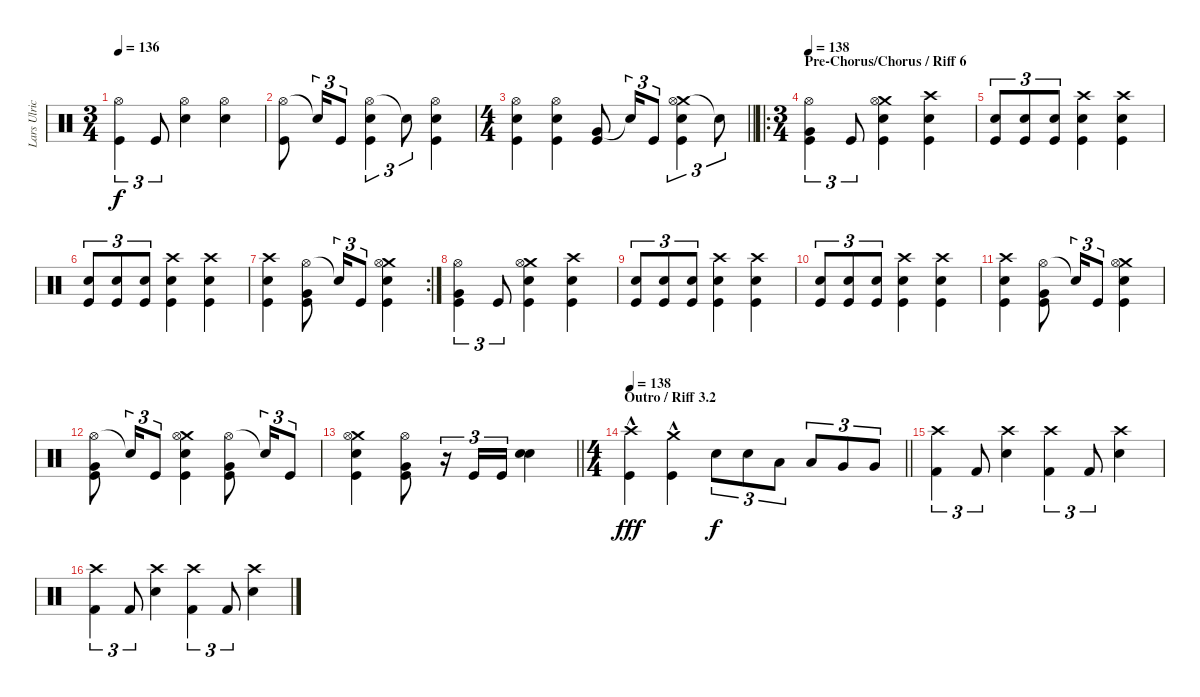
\track ("Lars Ulrich" "Lars Ulric") {instrument percussion}
\staff {score}
\articulation defaults
\ts (3 4)
\tempo 136
\clef neutral
\ks c
("Hi-Hat (open)" "Kick (hit)").4{tu (3 2) dy f} "Kick (hit)".8{tu (3 2)} ("Hi-Hat (open)" "Snare (hit) 2").4 ("Hi-Hat (open)" "Snare (hit) 2").4 |
("Hi-Hat (open)" "Kick (hit)").8 "Snare (hit)"{t}.16{tu (3 2)} "Kick (hit)".8{tu (3 2)} ("Hi-Hat (open)" "Snare (hit) 2" "Kick (hit)").4{tu (3 2)} "Snare (hit)"{t}.8{tu (3 2)} ("Hi-Hat (open)" "Snare (hit) 2" "Kick (hit)").4 |
\ts (4 4)
\barLineRight lightlight
("Hi-Hat (open)" "Snare (hit) 2" "Kick (hit)").4 ("Hi-Hat (open)" "Snare (hit) 2" "Kick (hit)").4 ("Very Low Tom (hit)" "Kick (hit)").8 "Snare (hit)"{t}.16{tu (3 2)} "Kick (hit)".8{tu (3 2)} ("Crash medium (hit)" "Hi-Hat (open)" "Snare (hit) 2" "Kick (hit)").4{tu (3 2)} "Snare (hit)"{t}.8{tu (3 2)} |
\ro
\ts (3 4)
\section ("" "Pre-Chorus/Chorus / Riff 6")
\tempo 138
("Hi-Hat (open)" "Very Low Tom (hit)" "Kick (hit)").4{tu (3 2)} "Kick (hit)".8{tu (3 2)} ("Crash medium (hit)" "Hi-Hat (open)" "Snare (hit) 2" "Kick (hit)").4 ("Crash high (hit)" "Snare (hit) 2" "Kick (hit)").4 |
("Snare (hit) 2" "Kick (hit)").8{tu (3 2)} ("Snare (hit) 2" "Kick (hit)").8{tu (3 2)} ("Snare (hit) 2" "Kick (hit)").8{tu (3 2)} ("Crash high (hit)" "Snare (hit) 2" "Kick (hit)").4 ("Crash high (hit)" "Snare (hit) 2" "Kick (hit)").4 |
("Snare (hit) 2" "Kick (hit)").8{tu (3 2)} ("Snare (hit) 2" "Kick (hit)").8{tu (3 2)} ("Snare (hit) 2" "Kick (hit)").8{tu (3 2)} ("Crash high (hit)" "Snare (hit) 2" "Kick (hit)").4 ("Crash high (hit)" "Snare (hit) 2" "Kick (hit)").4 |
\rc 2
("Crash high (hit)" "Snare (hit) 2" "Kick (hit)").4 ("Hi-Hat (open)" "Very Low Tom (hit)" "Kick (hit)").8 "Snare (hit)"{t}.16{tu (3 2)} "Kick (hit)".8{tu (3 2)} ("Crash medium (hit)" "Hi-Hat (open)" "Snare (hit) 2" "Kick (hit)").4 |
("Hi-Hat (open)" "Very Low Tom (hit)" "Kick (hit)").4{tu (3 2)} "Kick (hit)".8{tu (3 2)} ("Crash medium (hit)" "Hi-Hat (open)" "Snare (hit) 2" "Kick (hit)").4 ("Crash high (hit)" "Snare (hit) 2" "Kick (hit)").4 |
("Snare (hit) 2" "Kick (hit)").8{tu (3 2)} ("Snare (hit) 2" "Kick (hit)").8{tu (3 2)} ("Snare (hit) 2" "Kick (hit)").8{tu (3 2)} ("Crash high (hit)" "Snare (hit) 2" "Kick (hit)").4 ("Crash high (hit)" "Snare (hit) 2" "Kick (hit)").4 |
("Snare (hit) 2" "Kick (hit)").8{tu (3 2)} ("Snare (hit) 2" "Kick (hit)").8{tu (3 2)} ("Snare (hit) 2" "Kick (hit)").8{tu (3 2)} ("Crash high (hit)" "Snare (hit) 2" "Kick (hit)").4 ("Crash high (hit)" "Snare (hit) 2" "Kick (hit)").4 |
("Crash high (hit)" "Snare (hit) 2" "Kick (hit)").4 ("Hi-Hat (open)" "Very Low Tom (hit)" "Kick (hit)").8 "Snare (hit)"{t}.16{tu (3 2)} "Kick (hit)".8{tu (3 2)} ("Crash medium (hit)" "Hi-Hat (open)" "Snare (hit) 2" "Kick (hit)").4 |
("Hi-Hat (open)" "Very Low Tom (hit)" "Kick (hit)").8 "Snare (hit)"{t}.16{tu (3 2)} "Kick (hit)".8{tu (3 2)} ("Crash medium (hit)" "Hi-Hat (open)" "Snare (hit) 2" "Kick (hit)").4 ("Hi-Hat (open)" "Very Low Tom (hit)" "Kick (hit)").8 "Snare (hit)"{t}.16{tu (3 2)} "Kick (hit)".8{tu (3 2)} |
\barLineRight lightlight
("Crash medium (hit)" "Hi-Hat (open)" "Snare (hit) 2" "Kick (hit)").4 ("Hi-Hat (open)" "Very Low Tom (hit)" "Kick (hit)").8 r.16{tu (3 2)} "Kick (hit)".16{tu (3 2)} "Kick (hit)".16{tu (3 2)} ("Snare (hit) 2" "Snare (hit) 2").4{bd 240} |
\ts (4 4)
\section ("" "Outro / Riff 3.2")
\tempo 138
\barLineRight lightlight
("Crash high (hit)"{hac} "Kick (hit)"{hac}).4{dy fff} ("Crash medium (hit)"{hac} "Kick (hit)"{hac}).4 "Snare (hit) 2".8{tu (3 2) dy f} "Snare (hit) 2".8{tu (3 2)} "Low Tom (hit)".8{tu (3 2)} "Low Tom (hit)".8{tu (3 2)} "Very Low Tom (hit)".8{tu (3 2)} "Very Low Tom (hit)".8{tu (3 2)} |
("Crash high (hit)" "Kick (hit) 2").4{tu (3 2)} "Kick (hit) 2".8{tu (3 2)} ("Crash high (hit)" "Snare (hit) 2").4 ("Crash high (hit)" "Kick (hit) 2").4{tu (3 2)} "Kick (hit) 2".8{tu (3 2)} ("Crash high (hit)" "Snare (hit) 2").4 |
("Crash high (hit)" "Kick (hit) 2").4{tu (3 2)} "Kick (hit) 2".8{tu (3 2)} ("Crash high (hit)" "Snare (hit) 2").4 ("Crash high (hit)" "Kick (hit) 2").4{tu (3 2)} "Kick (hit) 2".8{tu (3 2)} ("Crash high (hit)" "Snare (hit) 2").4
